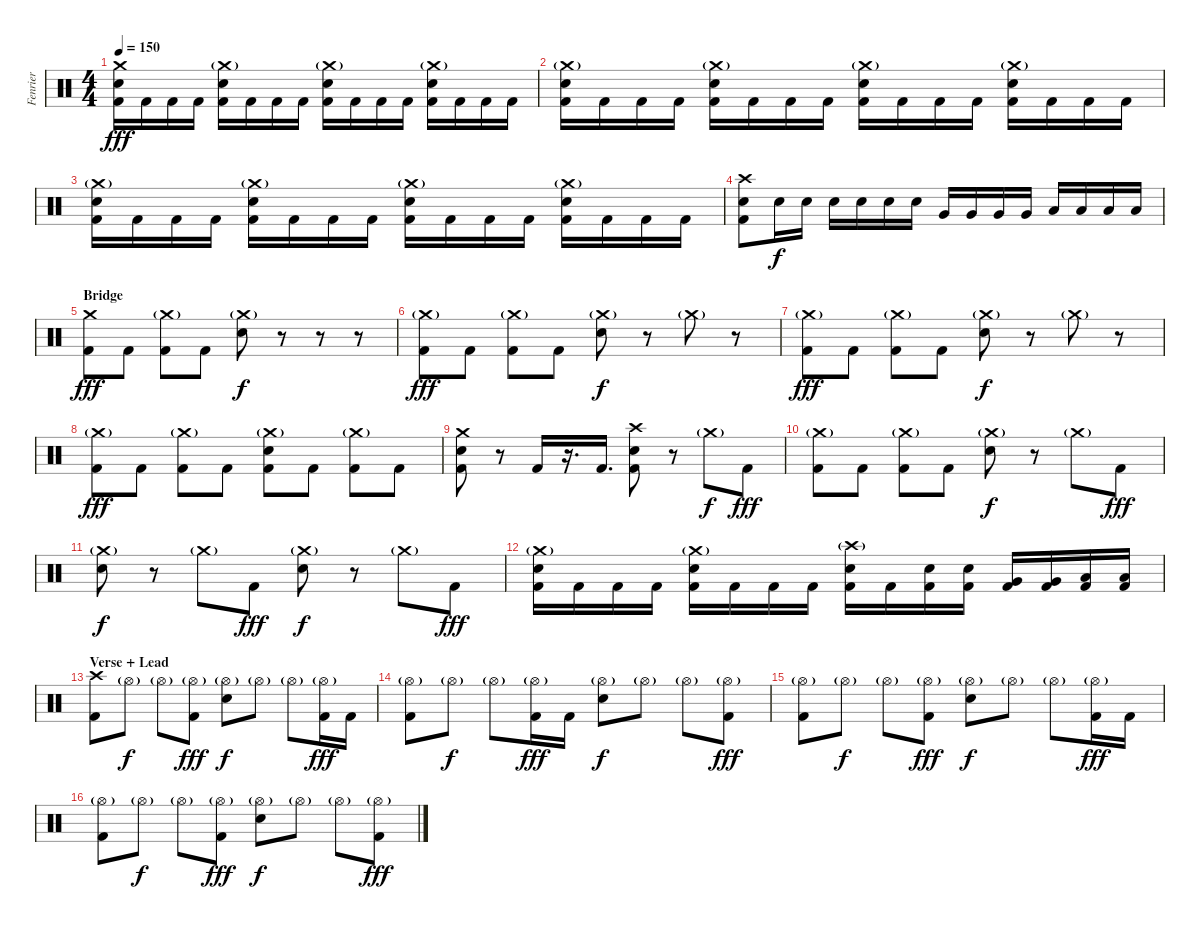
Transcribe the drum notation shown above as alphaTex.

\track ("Fenrier" "Fenrier") {instrument percussion}
\staff {score}
\articulation defaults
\ts (4 4)
\tempo 150
\clef neutral
\ks c
("Crash medium (hit)" "Electric Snare (hit)" "Kick (hit) 2").16{dy fff} "Kick (hit) 2".16 "Kick (hit) 2".16 "Kick (hit) 2".16 ("Crash medium (hit)"{g} "Electric Snare (hit)" "Kick (hit) 2").16 "Kick (hit) 2".16 "Kick (hit) 2".16 "Kick (hit) 2".16 ("Crash medium (hit)"{g} "Electric Snare (hit)" "Kick (hit) 2").16 "Kick (hit) 2".16 "Kick (hit) 2".16 "Kick (hit) 2".16 ("Crash medium (hit)"{g} "Electric Snare (hit)" "Kick (hit) 2").16 "Kick (hit) 2".16 "Kick (hit) 2".16 "Kick (hit) 2".16 |
("Crash medium (hit)"{g} "Electric Snare (hit)" "Kick (hit) 2").16 "Kick (hit) 2".16 "Kick (hit) 2".16 "Kick (hit) 2".16 ("Crash medium (hit)"{g} "Electric Snare (hit)" "Kick (hit) 2").16 "Kick (hit) 2".16 "Kick (hit) 2".16 "Kick (hit) 2".16 ("Crash medium (hit)"{g} "Electric Snare (hit)" "Kick (hit) 2").16 "Kick (hit) 2".16 "Kick (hit) 2".16 "Kick (hit) 2".16 ("Crash medium (hit)"{g} "Electric Snare (hit)" "Kick (hit) 2").16 "Kick (hit) 2".16 "Kick (hit) 2".16 "Kick (hit) 2".16 |
("Crash medium (hit)"{g} "Electric Snare (hit)" "Kick (hit) 2").16 "Kick (hit) 2".16 "Kick (hit) 2".16 "Kick (hit) 2".16 ("Crash medium (hit)"{g} "Electric Snare (hit)" "Kick (hit) 2").16 "Kick (hit) 2".16 "Kick (hit) 2".16 "Kick (hit) 2".16 ("Crash medium (hit)"{g} "Electric Snare (hit)" "Kick (hit) 2").16 "Kick (hit) 2".16 "Kick (hit) 2".16 "Kick (hit) 2".16 ("Crash medium (hit)"{g} "Electric Snare (hit)" "Kick (hit) 2").16 "Kick (hit) 2".16 "Kick (hit) 2".16 "Kick (hit) 2".16 |
("Crash high (hit)" "Electric Snare (hit)" "Kick (hit) 2").8 "Electric Snare (hit)".16{dy f} "Electric Snare (hit)".16 "Electric Snare (hit)".16 "Electric Snare (hit)".16 "Electric Snare (hit)".16 "Electric Snare (hit)".16 "Very Low Tom (hit)".16 "Very Low Tom (hit)".16 "Very Low Tom (hit)".16 "Very Low Tom (hit)".16 "Low Floor Tom (hit)".16 "Low Floor Tom (hit)".16 "Low Floor Tom (hit)".16 "Low Floor Tom (hit)".16 |
\section ("" "Bridge")
("Crash medium (hit)" "Kick (hit) 2").8{dy fff} "Kick (hit) 2".8 ("Crash medium (hit)"{g} "Kick (hit) 2").8 "Kick (hit) 2".8 ("Crash medium (hit)"{g} "Electric Snare (hit)").8{dy f} r.8 r.8 r.8 |
("Crash medium (hit)"{g} "Kick (hit) 2").8{dy fff} "Kick (hit) 2".8 ("Crash medium (hit)"{g} "Kick (hit) 2").8 "Kick (hit) 2".8 ("Crash medium (hit)"{g} "Electric Snare (hit)").8{dy f} r.8 "Crash medium (hit)"{g}.8 r.8 |
("Crash medium (hit)"{g} "Kick (hit) 2").8{dy fff} "Kick (hit) 2".8 ("Crash medium (hit)"{g} "Kick (hit) 2").8 "Kick (hit) 2".8 ("Crash medium (hit)"{g} "Electric Snare (hit)").8{dy f} r.8 "Crash medium (hit)"{g}.8 r.8 |
("Crash medium (hit)"{g} "Kick (hit) 2").8{dy fff} "Kick (hit) 2".8 ("Crash medium (hit)"{g} "Kick (hit) 2").8 "Kick (hit) 2".8 ("Crash medium (hit)"{g} "Electric Snare (hit)" "Kick (hit) 2").8 "Kick (hit) 2".8 ("Crash medium (hit)"{g} "Kick (hit) 2").8 "Kick (hit) 2".8 |
("Crash medium (hit)" "Electric Snare (hit)" "Kick (hit) 2").8 r.8 "Kick (hit) 2".16 r.16{d} "Kick (hit) 2".16{d} ("Crash high (hit)" "Electric Snare (hit)" "Kick (hit) 2").8 r.8 "Crash medium (hit)"{g}.8{dy f} "Kick (hit) 2".8{dy fff} |
("Crash medium (hit)"{g} "Kick (hit) 2").8 "Kick (hit) 2".8 ("Crash medium (hit)"{g} "Kick (hit) 2").8 "Kick (hit) 2".8 ("Crash medium (hit)"{g} "Electric Snare (hit)").8{dy f} r.8 "Crash medium (hit)"{g}.8 "Kick (hit) 2".8{dy fff} |
("Crash medium (hit)"{g} "Electric Snare (hit)").8{dy f} r.8 "Crash medium (hit)"{g}.8 "Kick (hit) 2".8{dy fff} ("Crash medium (hit)"{g} "Electric Snare (hit)").8{dy f} r.8 "Crash medium (hit)"{g}.8 "Kick (hit) 2".8{dy fff} |
("Crash medium (hit)"{g} "Electric Snare (hit)" "Kick (hit) 2").16 "Kick (hit) 2".16 "Kick (hit) 2".16 "Kick (hit) 2".16 ("Crash medium (hit)"{g} "Electric Snare (hit)" "Kick (hit) 2").16 "Kick (hit) 2".16 "Kick (hit) 2".16 "Kick (hit) 2".16 ("Crash high (hit)"{g} "Electric Snare (hit)" "Kick (hit) 2").16 "Kick (hit) 2".16 ("Electric Snare (hit)" "Kick (hit) 2").16 ("Electric Snare (hit)" "Kick (hit) 2").16 ("Very Low Tom (hit)" "Kick (hit) 2").16 ("Very Low Tom (hit)" "Kick (hit) 2").16 ("Low Floor Tom (hit)" "Kick (hit) 2").16 ("Low Floor Tom (hit)" "Kick (hit) 2").16 |
\section ("" "Verse + Lead")
("Crash high (hit)" "Kick (hit) 2").8 "Hi-Hat (open)"{g}.8{dy f} "Hi-Hat (open)"{g}.8 ("Hi-Hat (open)"{g} "Kick (hit) 2").8{dy fff} ("Hi-Hat (open)"{g} "Electric Snare (hit)").8{dy f} "Hi-Hat (open)"{g}.8 "Hi-Hat (open)"{g}.8 ("Hi-Hat (open)"{g} "Kick (hit) 2").16{dy fff} "Kick (hit) 2".16 |
("Hi-Hat (open)"{g} "Kick (hit) 2").8 "Hi-Hat (open)"{g}.8{dy f} "Hi-Hat (open)"{g}.8 ("Hi-Hat (open)"{g} "Kick (hit) 2").16{dy fff} "Kick (hit) 2".16 ("Hi-Hat (open)"{g} "Electric Snare (hit)").8{dy f} "Hi-Hat (open)"{g}.8 "Hi-Hat (open)"{g}.8 ("Hi-Hat (open)"{g} "Kick (hit) 2").8{dy fff} |
("Hi-Hat (open)"{g} "Kick (hit) 2").8 "Hi-Hat (open)"{g}.8{dy f} "Hi-Hat (open)"{g}.8 ("Hi-Hat (open)"{g} "Kick (hit) 2").8{dy fff} ("Hi-Hat (open)"{g} "Electric Snare (hit)").8{dy f} "Hi-Hat (open)"{g}.8 "Hi-Hat (open)"{g}.8 ("Hi-Hat (open)"{g} "Kick (hit) 2").16{dy fff} "Kick (hit) 2".16 |
("Hi-Hat (open)"{g} "Kick (hit) 2").8 "Hi-Hat (open)"{g}.8{dy f} "Hi-Hat (open)"{g}.8 ("Hi-Hat (open)"{g} "Kick (hit) 2").8{dy fff} ("Hi-Hat (open)"{g} "Electric Snare (hit)").8{dy f} "Hi-Hat (open)"{g}.8 "Hi-Hat (open)"{g}.8 ("Hi-Hat (open)"{g} "Kick (hit) 2").8{dy fff}
